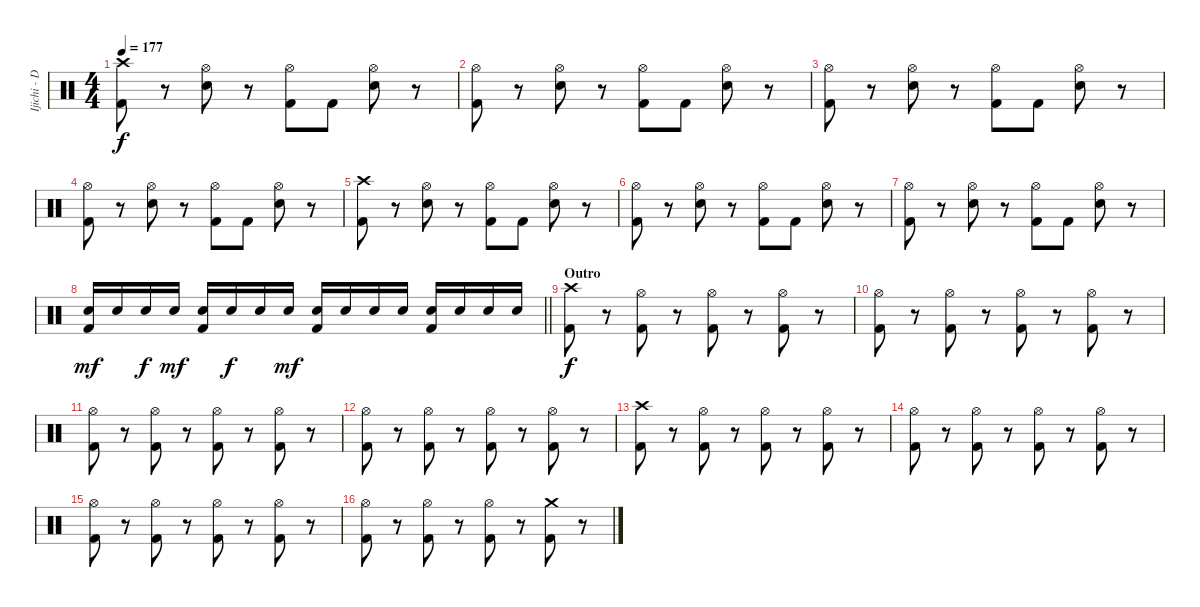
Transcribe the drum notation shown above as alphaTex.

\track ("Ijichi - Drums" "Ijichi - D") {instrument percussion}
\staff {score}
\articulation defaults
\ts (4 4)
\tempo 177
\clef neutral
\ks c
("Crash high (hit)" "Kick (hit) 2").8{dy f} r.8 ("Hi-Hat (open)" "Snare (hit) 2").8 r.8 ("Hi-Hat (open)" "Kick (hit) 2").8 "Kick (hit) 2".8 ("Hi-Hat (open)" "Snare (hit) 2").8 r.8 |
("Hi-Hat (open)" "Kick (hit) 2").8 r.8 ("Hi-Hat (open)" "Snare (hit) 2").8 r.8 ("Hi-Hat (open)" "Kick (hit) 2").8 "Kick (hit) 2".8 ("Hi-Hat (open)" "Snare (hit) 2").8 r.8 |
("Hi-Hat (open)" "Kick (hit) 2").8 r.8 ("Hi-Hat (open)" "Snare (hit) 2").8 r.8 ("Hi-Hat (open)" "Kick (hit) 2").8 "Kick (hit) 2".8 ("Hi-Hat (open)" "Snare (hit) 2").8 r.8 |
("Hi-Hat (open)" "Kick (hit) 2").8 r.8 ("Hi-Hat (open)" "Snare (hit) 2").8 r.8 ("Hi-Hat (open)" "Kick (hit) 2").8 "Kick (hit) 2".8 ("Hi-Hat (open)" "Snare (hit) 2").8 r.8 |
("Crash high (hit)" "Kick (hit) 2").8 r.8 ("Hi-Hat (open)" "Snare (hit) 2").8 r.8 ("Hi-Hat (open)" "Kick (hit) 2").8 "Kick (hit) 2".8 ("Hi-Hat (open)" "Snare (hit) 2").8 r.8 |
("Hi-Hat (open)" "Kick (hit) 2").8 r.8 ("Hi-Hat (open)" "Snare (hit) 2").8 r.8 ("Hi-Hat (open)" "Kick (hit) 2").8 "Kick (hit) 2".8 ("Hi-Hat (open)" "Snare (hit) 2").8 r.8 |
("Hi-Hat (open)" "Kick (hit) 2").8 r.8 ("Hi-Hat (open)" "Snare (hit) 2").8 r.8 ("Hi-Hat (open)" "Kick (hit) 2").8 "Kick (hit) 2".8 ("Hi-Hat (open)" "Snare (hit) 2").8 r.8 |
\barLineRight lightlight
("Snare (hit) 2" "Kick (hit) 2").16{dy mf} "Snare (hit) 2".16 "Snare (hit) 2".16{dy f} "Snare (hit) 2".16{dy mf} ("Snare (hit) 2" "Kick (hit) 2").16 "Snare (hit) 2".16{dy f} "Snare (hit) 2".16 "Snare (hit) 2".16{dy mf} ("Snare (hit) 2" "Kick (hit) 2").16 "Snare (hit) 2".16 "Snare (hit) 2".16 "Snare (hit) 2".16 ("Snare (hit) 2" "Kick (hit) 2").16 "Snare (hit) 2".16 "Snare (hit) 2".16 "Snare (hit) 2".16 |
\section ("" "Outro")
("Crash high (hit)" "Kick (hit) 2").8{dy f} r.8 ("Hi-Hat (open)" "Kick (hit) 2").8 r.8 ("Hi-Hat (open)" "Kick (hit) 2").8 r.8 ("Hi-Hat (open)" "Kick (hit) 2").8 r.8 |
("Hi-Hat (open)" "Kick (hit) 2").8 r.8 ("Hi-Hat (open)" "Kick (hit) 2").8 r.8 ("Hi-Hat (open)" "Kick (hit) 2").8 r.8 ("Hi-Hat (open)" "Kick (hit) 2").8 r.8 |
("Hi-Hat (open)" "Kick (hit) 2").8 r.8 ("Hi-Hat (open)" "Kick (hit) 2").8 r.8 ("Hi-Hat (open)" "Kick (hit) 2").8 r.8 ("Hi-Hat (open)" "Kick (hit) 2").8 r.8 |
("Hi-Hat (open)" "Kick (hit) 2").8 r.8 ("Hi-Hat (open)" "Kick (hit) 2").8 r.8 ("Hi-Hat (open)" "Kick (hit) 2").8 r.8 ("Hi-Hat (open)" "Kick (hit) 2").8 r.8 |
("Crash high (hit)" "Kick (hit) 2").8 r.8 ("Hi-Hat (open)" "Kick (hit) 2").8 r.8 ("Hi-Hat (open)" "Kick (hit) 2").8 r.8 ("Hi-Hat (open)" "Kick (hit) 2").8 r.8 |
("Hi-Hat (open)" "Kick (hit) 2").8 r.8 ("Hi-Hat (open)" "Kick (hit) 2").8 r.8 ("Hi-Hat (open)" "Kick (hit) 2").8 r.8 ("Hi-Hat (open)" "Kick (hit) 2").8 r.8 |
("Hi-Hat (open)" "Kick (hit) 2").8 r.8 ("Hi-Hat (open)" "Kick (hit) 2").8 r.8 ("Hi-Hat (open)" "Kick (hit) 2").8 r.8 ("Hi-Hat (open)" "Kick (hit) 2").8 r.8 |
("Hi-Hat (open)" "Kick (hit) 2").8 r.8 ("Hi-Hat (open)" "Kick (hit) 2").8 r.8 ("Hi-Hat (open)" "Kick (hit) 2").8 r.8 ("Crash medium (hit)" "Kick (hit) 2").8 r.8
